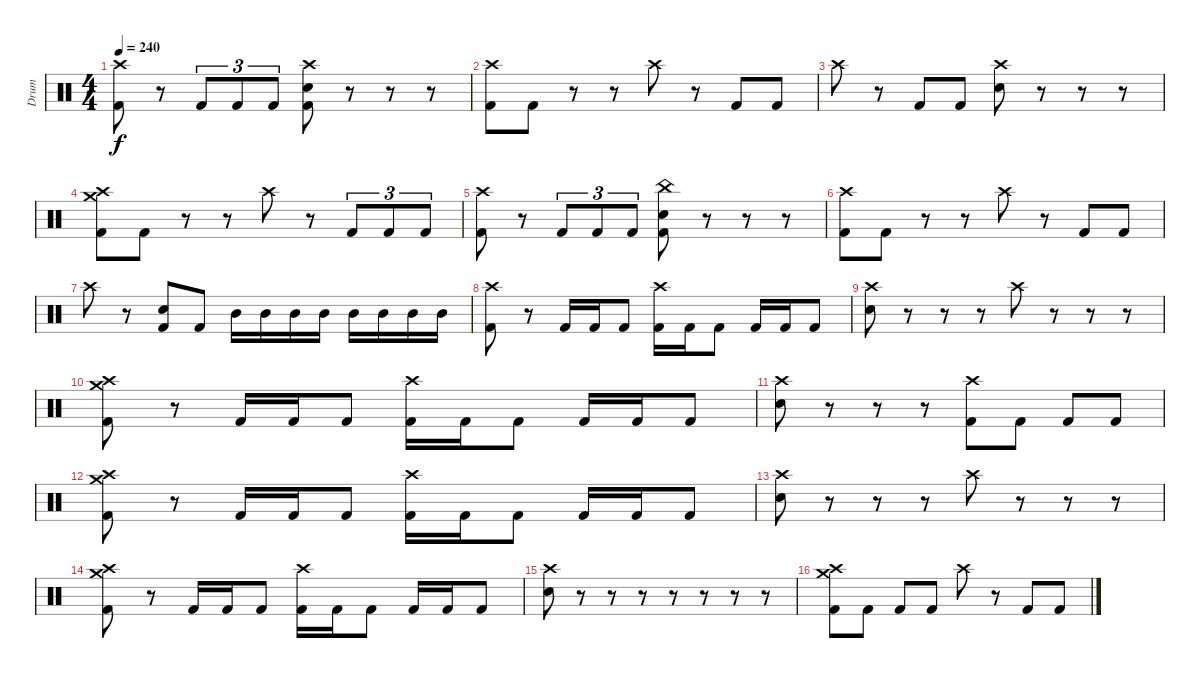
\track ("Drum" "Drum") {instrument percussion}
\staff {score}
\articulation defaults
\ts (4 4)
\tempo 240
\clef neutral
\ks c
("Crash high (hit)" "Kick (hit) 2").8{dy f} r.8 "Kick (hit) 2".8{tu (3 2)} "Kick (hit) 2".8{tu (3 2)} "Kick (hit) 2".8{tu (3 2)} ("Crash high (hit)" "Electric Snare (hit)" "Kick (hit) 2").8 r.8 r.8 r.8 |
("Crash high (hit)" "Kick (hit) 2").8 "Kick (hit) 2".8 r.8 r.8 "Crash high (hit)".8 r.8 "Kick (hit) 2".8 "Kick (hit) 2".8 |
"Crash high (hit)".8 r.8 "Kick (hit) 2".8 "Kick (hit) 2".8 ("Crash high (hit)" "Electric Snare (hit)").8 r.8 r.8 r.8 |
("Crash medium (hit)" "Crash high (hit)" "Kick (hit) 2").8 "Kick (hit) 2".8 r.8 r.8 "Crash high (hit)".8 r.8 "Kick (hit) 2".8{tu (3 2)} "Kick (hit) 2".8{tu (3 2)} "Kick (hit) 2".8{tu (3 2)} |
("Crash high (hit)" "Kick (hit) 2").8 r.8 "Kick (hit) 2".8{tu (3 2)} "Kick (hit) 2".8{tu (3 2)} "Kick (hit) 2".8{tu (3 2)} ("China (hit)" "Electric Snare (hit)" "Kick (hit) 2").8 r.8 r.8 r.8 |
("Crash high (hit)" "Kick (hit) 2").8 "Kick (hit) 2".8 r.8 r.8 "Crash high (hit)".8 r.8 "Kick (hit) 2".8 "Kick (hit) 2".8 |
"Crash high (hit)".8 r.8 ("Electric Snare (hit)" "Kick (hit) 2").8 "Kick (hit) 2".8 "Mid Tom (hit)".16 "Mid Tom (hit)".16 "Mid Tom (hit)".16 "Mid Tom (hit)".16 "Mid Tom (hit)".16 "Mid Tom (hit)".16 "Mid Tom (hit)".16 "Mid Tom (hit)".16 |
("Crash high (hit)" "Kick (hit) 2").8 r.8 "Kick (hit) 2".16 "Kick (hit) 2".16 "Kick (hit) 2".8 ("Crash high (hit)" "Kick (hit) 2").16 "Kick (hit) 2".16 "Kick (hit) 2".8 "Kick (hit) 2".16 "Kick (hit) 2".16 "Kick (hit) 2".8 |
("Crash high (hit)" "Electric Snare (hit)").8 r.8 r.8 r.8 "Crash high (hit)".8 r.8 r.8 r.8 |
("Crash medium (hit)" "Crash high (hit)" "Kick (hit) 2").8 r.8 "Kick (hit) 2".16 "Kick (hit) 2".16 "Kick (hit) 2".8 ("Crash high (hit)" "Kick (hit) 2").16 "Kick (hit) 2".16 "Kick (hit) 2".8 "Kick (hit) 2".16 "Kick (hit) 2".16 "Kick (hit) 2".8 |
("Crash high (hit)" "Electric Snare (hit)").8 r.8 r.8 r.8 ("Crash high (hit)" "Kick (hit) 2").8 "Kick (hit) 2".8 "Kick (hit) 2".8 "Kick (hit) 2".8 |
("Crash medium (hit)" "Crash high (hit)" "Kick (hit) 2").8 r.8 "Kick (hit) 2".16 "Kick (hit) 2".16 "Kick (hit) 2".8 ("Crash high (hit)" "Kick (hit) 2").16 "Kick (hit) 2".16 "Kick (hit) 2".8 "Kick (hit) 2".16 "Kick (hit) 2".16 "Kick (hit) 2".8 |
("Crash high (hit)" "Electric Snare (hit)").8 r.8 r.8 r.8 "Crash high (hit)".8 r.8 r.8 r.8 |
("Crash medium (hit)" "Crash high (hit)" "Kick (hit) 2").8 r.8 "Kick (hit) 2".16 "Kick (hit) 2".16 "Kick (hit) 2".8 ("Crash high (hit)" "Kick (hit) 2").16 "Kick (hit) 2".16 "Kick (hit) 2".8 "Kick (hit) 2".16 "Kick (hit) 2".16 "Kick (hit) 2".8 |
("Crash high (hit)" "Electric Snare (hit)").8 r.8 r.8 r.8 r.8 r.8 r.8 r.8 |
("Crash medium (hit)" "Crash high (hit)" "Kick (hit) 2").8 "Kick (hit) 2".8 "Kick (hit) 2".8 "Kick (hit) 2".8 "Crash high (hit)".8 r.8 "Kick (hit) 2".8 "Kick (hit) 2".8
